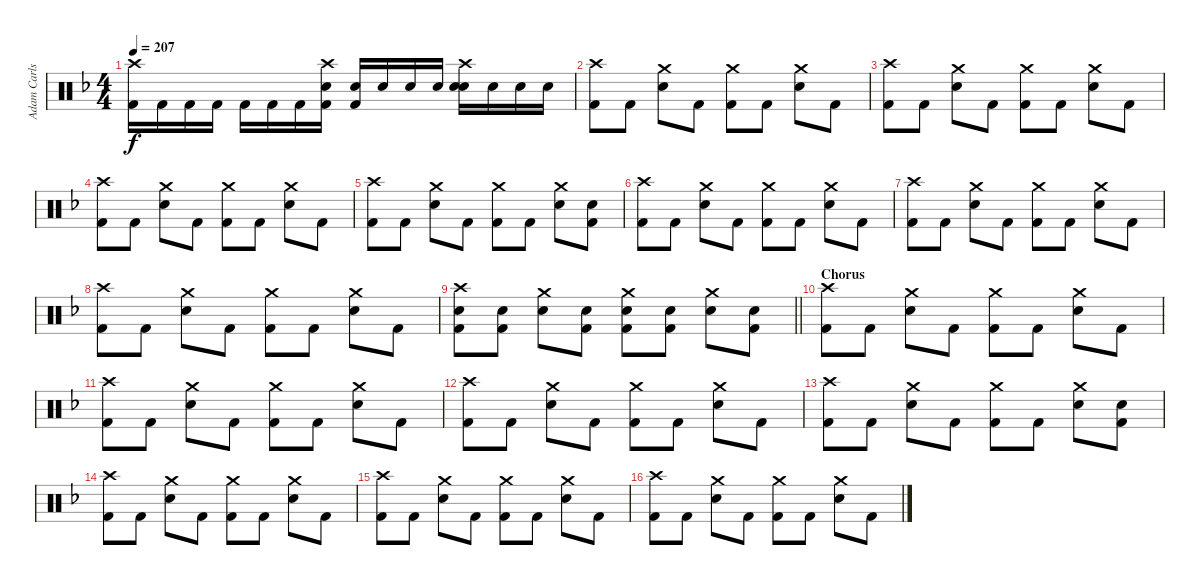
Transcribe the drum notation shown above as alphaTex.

\track ("Adam Carlson" "Adam Carls") {instrument percussion}
\staff {score}
\articulation defaults
\ts (4 4)
\tempo 207
\clef neutral
\ks f
("Crash high (hit)" "Kick (hit) 2").16{dy f} "Kick (hit) 2".16 "Kick (hit) 2".16 "Kick (hit) 2".16 "Kick (hit) 2".16 "Kick (hit) 2".16 "Kick (hit) 2".16 ("Electric Snare (hit)" "Crash high (hit)" "Kick (hit) 2").16 ("Electric Snare (hit)" "Kick (hit) 2").16 "Electric Snare (hit)".16 "Electric Snare (hit)".16 "Electric Snare (hit)".16 ("Electric Snare (hit)" "Crash high (hit)" "Electric Snare (hit)").16 "Electric Snare (hit)".16 "Electric Snare (hit)".16 "Electric Snare (hit)".16 |
("Crash high (hit)" "Kick (hit) 2").8 "Kick (hit) 2".8 ("Crash medium (hit)" "Electric Snare (hit)").8 "Kick (hit) 2".8 ("Crash medium (hit)" "Kick (hit) 2").8 "Kick (hit) 2".8 ("Crash medium (hit)" "Electric Snare (hit)").8 "Kick (hit) 2".8 |
("Crash high (hit)" "Kick (hit) 2").8 "Kick (hit) 2".8 ("Crash medium (hit)" "Electric Snare (hit)").8 "Kick (hit) 2".8 ("Crash medium (hit)" "Kick (hit) 2").8 "Kick (hit) 2".8 ("Crash medium (hit)" "Electric Snare (hit)").8 "Kick (hit) 2".8 |
("Crash high (hit)" "Kick (hit) 2").8 "Kick (hit) 2".8 ("Crash medium (hit)" "Electric Snare (hit)").8 "Kick (hit) 2".8 ("Crash medium (hit)" "Kick (hit) 2").8 "Kick (hit) 2".8 ("Crash medium (hit)" "Electric Snare (hit)").8 "Kick (hit) 2".8 |
("Crash high (hit)" "Kick (hit) 2").8 "Kick (hit) 2".8 ("Crash medium (hit)" "Electric Snare (hit)").8 "Kick (hit) 2".8 ("Crash medium (hit)" "Kick (hit) 2").8 "Kick (hit) 2".8 ("Crash medium (hit)" "Electric Snare (hit)").8 ("Electric Snare (hit)" "Kick (hit) 2").8 |
("Crash high (hit)" "Kick (hit) 2").8 "Kick (hit) 2".8 ("Crash medium (hit)" "Electric Snare (hit)").8 "Kick (hit) 2".8 ("Crash medium (hit)" "Kick (hit) 2").8 "Kick (hit) 2".8 ("Crash medium (hit)" "Electric Snare (hit)").8 "Kick (hit) 2".8 |
("Crash high (hit)" "Kick (hit) 2").8 "Kick (hit) 2".8 ("Crash medium (hit)" "Electric Snare (hit)").8 "Kick (hit) 2".8 ("Crash medium (hit)" "Kick (hit) 2").8 "Kick (hit) 2".8 ("Crash medium (hit)" "Electric Snare (hit)").8 "Kick (hit) 2".8 |
("Crash high (hit)" "Kick (hit) 2").8 "Kick (hit) 2".8 ("Crash medium (hit)" "Electric Snare (hit)").8 "Kick (hit) 2".8 ("Crash medium (hit)" "Kick (hit) 2").8 "Kick (hit) 2".8 ("Crash medium (hit)" "Electric Snare (hit)").8 "Kick (hit) 2".8 |
\barLineRight lightlight
("Crash high (hit)" "Electric Snare (hit)" "Kick (hit) 2").8 ("Electric Snare (hit)" "Kick (hit) 2").8 ("Crash medium (hit)" "Electric Snare (hit)").8 ("Electric Snare (hit)" "Kick (hit) 2").8 ("Crash medium (hit)" "Electric Snare (hit)" "Kick (hit) 2").8 ("Electric Snare (hit)" "Kick (hit) 2").8 ("Crash medium (hit)" "Electric Snare (hit)").8 ("Electric Snare (hit)" "Kick (hit) 2").8 |
\section ("" "Chorus")
("Crash high (hit)" "Kick (hit) 2").8 "Kick (hit) 2".8 ("Crash medium (hit)" "Electric Snare (hit)").8 "Kick (hit) 2".8 ("Crash medium (hit)" "Kick (hit) 2").8 "Kick (hit) 2".8 ("Crash medium (hit)" "Electric Snare (hit)").8 "Kick (hit) 2".8 |
("Crash high (hit)" "Kick (hit) 2").8 "Kick (hit) 2".8 ("Crash medium (hit)" "Electric Snare (hit)").8 "Kick (hit) 2".8 ("Crash medium (hit)" "Kick (hit) 2").8 "Kick (hit) 2".8 ("Crash medium (hit)" "Electric Snare (hit)").8 "Kick (hit) 2".8 |
("Crash high (hit)" "Kick (hit) 2").8 "Kick (hit) 2".8 ("Crash medium (hit)" "Electric Snare (hit)").8 "Kick (hit) 2".8 ("Crash medium (hit)" "Kick (hit) 2").8 "Kick (hit) 2".8 ("Crash medium (hit)" "Electric Snare (hit)").8 "Kick (hit) 2".8 |
("Crash high (hit)" "Kick (hit) 2").8 "Kick (hit) 2".8 ("Crash medium (hit)" "Electric Snare (hit)").8 "Kick (hit) 2".8 ("Crash medium (hit)" "Kick (hit) 2").8 "Kick (hit) 2".8 ("Crash medium (hit)" "Electric Snare (hit)").8 ("Electric Snare (hit)" "Kick (hit) 2").8 |
("Crash high (hit)" "Kick (hit) 2").8 "Kick (hit) 2".8 ("Crash medium (hit)" "Electric Snare (hit)").8 "Kick (hit) 2".8 ("Crash medium (hit)" "Kick (hit) 2").8 "Kick (hit) 2".8 ("Crash medium (hit)" "Electric Snare (hit)").8 "Kick (hit) 2".8 |
("Crash high (hit)" "Kick (hit) 2").8 "Kick (hit) 2".8 ("Crash medium (hit)" "Electric Snare (hit)").8 "Kick (hit) 2".8 ("Crash medium (hit)" "Kick (hit) 2").8 "Kick (hit) 2".8 ("Crash medium (hit)" "Electric Snare (hit)").8 "Kick (hit) 2".8 |
("Crash high (hit)" "Kick (hit) 2").8 "Kick (hit) 2".8 ("Crash medium (hit)" "Electric Snare (hit)").8 "Kick (hit) 2".8 ("Crash medium (hit)" "Kick (hit) 2").8 "Kick (hit) 2".8 ("Crash medium (hit)" "Electric Snare (hit)").8 "Kick (hit) 2".8
